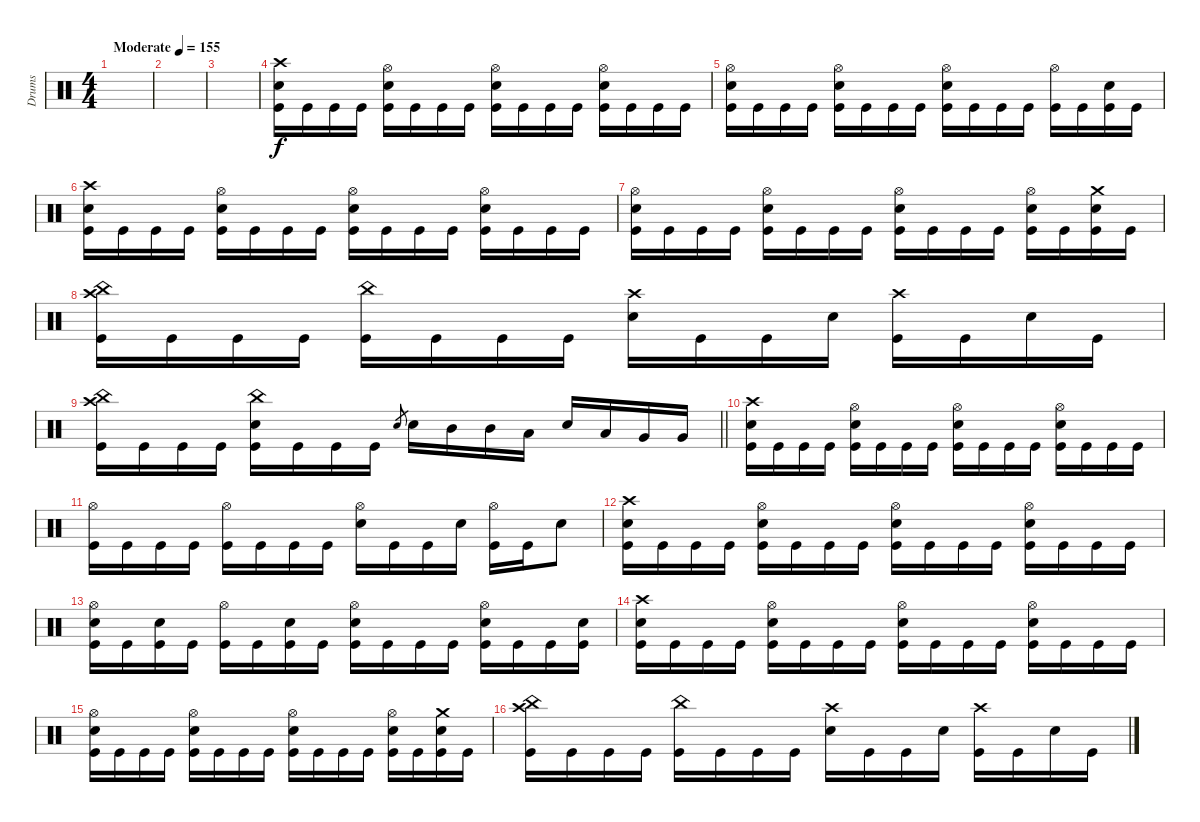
\track ("Drums" "Drums") {instrument percussion}
\staff
\articulation defaults
\ts (4 4)
\tempo (155 "Moderate")
\clef neutral
\ks c
|
|
|
("Crash high (hit)" "Electric Snare (hit)" "Kick (hit)").16 "Kick (hit)".16 "Kick (hit)".16 "Kick (hit)".16 ("Hi-Hat (open)" "Electric Snare (hit)" "Kick (hit)").16 "Kick (hit)".16 "Kick (hit)".16 "Kick (hit)".16 ("Hi-Hat (open)" "Electric Snare (hit)" "Kick (hit)").16 "Kick (hit)".16 "Kick (hit)".16 "Kick (hit)".16 ("Hi-Hat (open)" "Electric Snare (hit)" "Kick (hit)").16 "Kick (hit)".16 "Kick (hit)".16 "Kick (hit)".16 |
("Hi-Hat (open)" "Electric Snare (hit)" "Kick (hit)").16 "Kick (hit)".16 "Kick (hit)".16 "Kick (hit)".16 ("Hi-Hat (open)" "Electric Snare (hit)" "Kick (hit)").16 "Kick (hit)".16 "Kick (hit)".16 "Kick (hit)".16 ("Hi-Hat (open)" "Electric Snare (hit)" "Kick (hit)").16 "Kick (hit)".16 "Kick (hit)".16 "Kick (hit)".16 ("Hi-Hat (open)" "Kick (hit)").16 "Kick (hit)".16 ("Electric Snare (hit)" "Kick (hit)").16 "Kick (hit)".16 |
("Crash high (hit)" "Electric Snare (hit)" "Kick (hit)").16 "Kick (hit)".16 "Kick (hit)".16 "Kick (hit)".16 ("Hi-Hat (open)" "Electric Snare (hit)" "Kick (hit)").16 "Kick (hit)".16 "Kick (hit)".16 "Kick (hit)".16 ("Hi-Hat (open)" "Electric Snare (hit)" "Kick (hit)").16 "Kick (hit)".16 "Kick (hit)".16 "Kick (hit)".16 ("Hi-Hat (open)" "Electric Snare (hit)" "Kick (hit)").16 "Kick (hit)".16 "Kick (hit)".16 "Kick (hit)".16 |
("Hi-Hat (open)" "Electric Snare (hit)" "Kick (hit)").16 "Kick (hit)".16 "Kick (hit)".16 "Kick (hit)".16 ("Hi-Hat (open)" "Electric Snare (hit)" "Kick (hit)").16 "Kick (hit)".16 "Kick (hit)".16 "Kick (hit)".16 ("Hi-Hat (open)" "Electric Snare (hit)" "Kick (hit)").16 "Kick (hit)".16 "Kick (hit)".16 "Kick (hit)".16 ("Hi-Hat (open)" "Electric Snare (hit)" "Kick (hit)").16 "Kick (hit)".16 ("Crash medium (hit)" "Electric Snare (hit)" "Kick (hit)").16 "Kick (hit)".16 |
("China (hit)" "Crash high (hit)" "Kick (hit)").16 "Kick (hit)".16 "Kick (hit)".16 "Kick (hit)".16 ("China (hit)" "Kick (hit)").16 "Kick (hit)".16 "Kick (hit)".16 "Kick (hit)".16 ("Crash high (hit)" "Electric Snare (hit)").16 "Kick (hit)".16 "Kick (hit)".16 "Electric Snare (hit)".16 ("Crash high (hit)" "Kick (hit)").16 "Kick (hit)".16 "Electric Snare (hit)".16 "Kick (hit)".16 |
\barLineRight lightlight
("China (hit)" "Crash high (hit)" "Kick (hit)").16 "Kick (hit)".16 "Kick (hit)".16 "Kick (hit)".16 ("China (hit)" "Electric Snare (hit)" "Kick (hit)").16 "Kick (hit)".16 "Kick (hit)".16 "Kick (hit)".16 "Electric Snare (hit)".8{gr} "Electric Snare (hit)".16 "Mid Tom (hit)".16 "Mid Tom (hit)".16 "Low Tom (hit)".16 "Electric Snare (hit)".16 "Low Tom (hit)".16 "Very Low Tom (hit)".16 "Very Low Tom (hit)".16 |
("Crash high (hit)" "Electric Snare (hit)" "Kick (hit)").16 "Kick (hit)".16 "Kick (hit)".16 "Kick (hit)".16 ("Hi-Hat (open)" "Electric Snare (hit)" "Kick (hit)").16 "Kick (hit)".16 "Kick (hit)".16 "Kick (hit)".16 ("Hi-Hat (open)" "Electric Snare (hit)" "Kick (hit)").16 "Kick (hit)".16 "Kick (hit)".16 "Kick (hit)".16 ("Hi-Hat (open)" "Electric Snare (hit)" "Kick (hit)").16 "Kick (hit)".16 "Kick (hit)".16 "Kick (hit)".16 |
("Hi-Hat (open)" "Kick (hit)").16 "Kick (hit)".16 "Kick (hit)".16 "Kick (hit)".16 ("Hi-Hat (open)" "Kick (hit)").16 "Kick (hit)".16 "Kick (hit)".16 "Kick (hit)".16 ("Hi-Hat (open)" "Electric Snare (hit)").16 "Kick (hit)".16 "Kick (hit)".16 "Electric Snare (hit)".16 ("Hi-Hat (open)" "Kick (hit)").16 "Kick (hit)".16 "Electric Snare (hit)".8 |
("Crash high (hit)" "Electric Snare (hit)" "Kick (hit)").16 "Kick (hit)".16 "Kick (hit)".16 "Kick (hit)".16 ("Hi-Hat (open)" "Electric Snare (hit)" "Kick (hit)").16 "Kick (hit)".16 "Kick (hit)".16 "Kick (hit)".16 ("Hi-Hat (open)" "Electric Snare (hit)" "Kick (hit)").16 "Kick (hit)".16 "Kick (hit)".16 "Kick (hit)".16 ("Hi-Hat (open)" "Electric Snare (hit)" "Kick (hit)").16 "Kick (hit)".16 "Kick (hit)".16 "Kick (hit)".16 |
("Hi-Hat (open)" "Electric Snare (hit)" "Kick (hit)").16 "Kick (hit)".16 ("Electric Snare (hit)" "Kick (hit)").16 "Kick (hit)".16 ("Hi-Hat (open)" "Kick (hit)").16 "Kick (hit)".16 ("Electric Snare (hit)" "Kick (hit)").16 "Kick (hit)".16 ("Hi-Hat (open)" "Electric Snare (hit)" "Kick (hit)").16 "Kick (hit)".16 "Kick (hit)".16 "Kick (hit)".16 ("Hi-Hat (open)" "Electric Snare (hit)" "Kick (hit)").16 "Kick (hit)".16 "Kick (hit)".16 ("Electric Snare (hit)" "Kick (hit)").16 |
("Crash high (hit)" "Electric Snare (hit)" "Kick (hit)").16 "Kick (hit)".16 "Kick (hit)".16 "Kick (hit)".16 ("Hi-Hat (open)" "Electric Snare (hit)" "Kick (hit)").16 "Kick (hit)".16 "Kick (hit)".16 "Kick (hit)".16 ("Hi-Hat (open)" "Electric Snare (hit)" "Kick (hit)").16 "Kick (hit)".16 "Kick (hit)".16 "Kick (hit)".16 ("Hi-Hat (open)" "Electric Snare (hit)" "Kick (hit)").16 "Kick (hit)".16 "Kick (hit)".16 "Kick (hit)".16 |
("Hi-Hat (open)" "Electric Snare (hit)" "Kick (hit)").16 "Kick (hit)".16 "Kick (hit)".16 "Kick (hit)".16 ("Hi-Hat (open)" "Electric Snare (hit)" "Kick (hit)").16 "Kick (hit)".16 "Kick (hit)".16 "Kick (hit)".16 ("Hi-Hat (open)" "Electric Snare (hit)" "Kick (hit)").16 "Kick (hit)".16 "Kick (hit)".16 "Kick (hit)".16 ("Hi-Hat (open)" "Electric Snare (hit)" "Kick (hit)").16 "Kick (hit)".16 ("Crash medium (hit)" "Electric Snare (hit)" "Kick (hit)").16 "Kick (hit)".16 |
("China (hit)" "Crash high (hit)" "Kick (hit)").16 "Kick (hit)".16 "Kick (hit)".16 "Kick (hit)".16 ("China (hit)" "Kick (hit)").16 "Kick (hit)".16 "Kick (hit)".16 "Kick (hit)".16 ("Crash high (hit)" "Electric Snare (hit)").16 "Kick (hit)".16 "Kick (hit)".16 "Electric Snare (hit)".16 ("Crash high (hit)" "Kick (hit)").16 "Kick (hit)".16 "Electric Snare (hit)".16 "Kick (hit)".16
